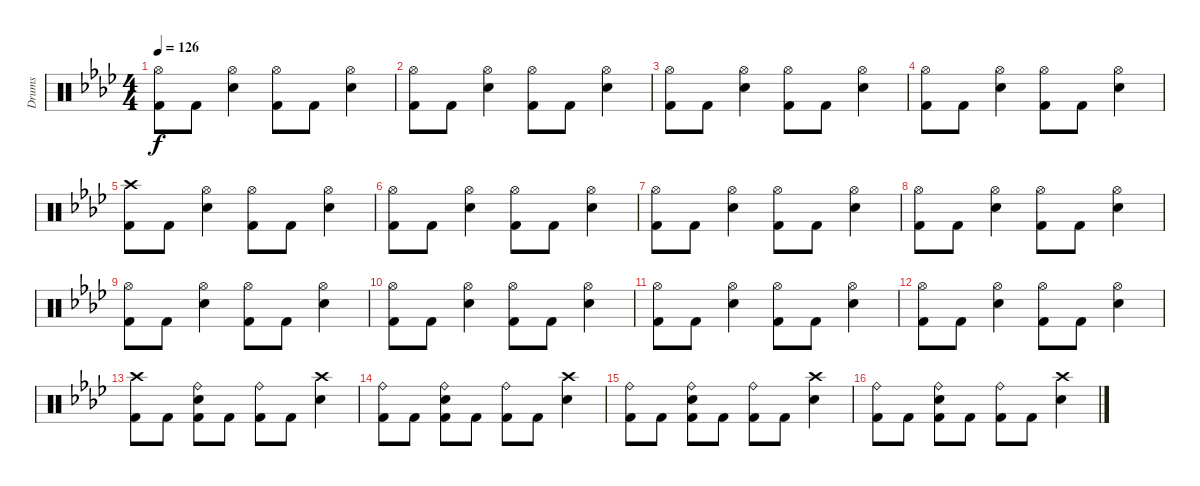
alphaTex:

\track ("Drums" "Drums") {instrument percussion}
\staff {score}
\articulation defaults
\ts (4 4)
\tempo 126
\clef neutral
\ks fminor
("Hi-Hat (open)" "Kick (hit) 2").8{dy f} "Kick (hit) 2".8 ("Hi-Hat (open)" "Electric Snare (hit)").4 ("Hi-Hat (open)" "Kick (hit) 2").8 "Kick (hit) 2".8 ("Hi-Hat (open)" "Electric Snare (hit)").4 |
("Hi-Hat (open)" "Kick (hit) 2").8 "Kick (hit) 2".8 ("Hi-Hat (open)" "Electric Snare (hit)").4 ("Hi-Hat (open)" "Kick (hit) 2").8 "Kick (hit) 2".8 ("Hi-Hat (open)" "Electric Snare (hit)").4 |
("Hi-Hat (open)" "Kick (hit) 2").8 "Kick (hit) 2".8 ("Hi-Hat (open)" "Electric Snare (hit)").4 ("Hi-Hat (open)" "Kick (hit) 2").8 "Kick (hit) 2".8 ("Hi-Hat (open)" "Electric Snare (hit)").4 |
("Hi-Hat (open)" "Kick (hit) 2").8 "Kick (hit) 2".8 ("Hi-Hat (open)" "Electric Snare (hit)").4 ("Hi-Hat (open)" "Kick (hit) 2").8 "Kick (hit) 2".8 ("Hi-Hat (open)" "Electric Snare (hit)").4 |
("Crash high (hit)" "Kick (hit) 2").8 "Kick (hit) 2".8 ("Hi-Hat (open)" "Electric Snare (hit)").4 ("Hi-Hat (open)" "Kick (hit) 2").8 "Kick (hit) 2".8 ("Hi-Hat (open)" "Electric Snare (hit)").4 |
("Hi-Hat (open)" "Kick (hit) 2").8 "Kick (hit) 2".8 ("Hi-Hat (open)" "Electric Snare (hit)").4 ("Hi-Hat (open)" "Kick (hit) 2").8 "Kick (hit) 2".8 ("Hi-Hat (open)" "Electric Snare (hit)").4 |
("Hi-Hat (open)" "Kick (hit) 2").8 "Kick (hit) 2".8 ("Hi-Hat (open)" "Electric Snare (hit)").4 ("Hi-Hat (open)" "Kick (hit) 2").8 "Kick (hit) 2".8 ("Hi-Hat (open)" "Electric Snare (hit)").4 |
("Hi-Hat (open)" "Kick (hit) 2").8 "Kick (hit) 2".8 ("Hi-Hat (open)" "Electric Snare (hit)").4 ("Hi-Hat (open)" "Kick (hit) 2").8 "Kick (hit) 2".8 ("Hi-Hat (open)" "Electric Snare (hit)").4 |
("Hi-Hat (open)" "Kick (hit) 2").8 "Kick (hit) 2".8 ("Hi-Hat (open)" "Electric Snare (hit)").4 ("Hi-Hat (open)" "Kick (hit) 2").8 "Kick (hit) 2".8 ("Hi-Hat (open)" "Electric Snare (hit)").4 |
("Hi-Hat (open)" "Kick (hit) 2").8 "Kick (hit) 2".8 ("Hi-Hat (open)" "Electric Snare (hit)").4 ("Hi-Hat (open)" "Kick (hit) 2").8 "Kick (hit) 2".8 ("Hi-Hat (open)" "Electric Snare (hit)").4 |
("Hi-Hat (open)" "Kick (hit) 2").8 "Kick (hit) 2".8 ("Hi-Hat (open)" "Electric Snare (hit)").4 ("Hi-Hat (open)" "Kick (hit) 2").8 "Kick (hit) 2".8 ("Hi-Hat (open)" "Electric Snare (hit)").4 |
("Hi-Hat (open)" "Kick (hit) 2").8 "Kick (hit) 2".8 ("Hi-Hat (open)" "Electric Snare (hit)").4 ("Hi-Hat (open)" "Kick (hit) 2").8 "Kick (hit) 2".8 ("Hi-Hat (open)" "Electric Snare (hit)").4 |
("Crash high (hit)" "Kick (hit) 2").8 "Kick (hit) 2".8 ("Ride (bell)" "Electric Snare (hit)" "Kick (hit) 2").8 "Kick (hit) 2".8 ("Ride (bell)" "Kick (hit) 2").8 "Kick (hit) 2".8 ("Crash high (hit)" "Electric Snare (hit)").4 |
("Ride (bell)" "Kick (hit) 2").8 "Kick (hit) 2".8 ("Ride (bell)" "Electric Snare (hit)" "Kick (hit) 2").8 "Kick (hit) 2".8 ("Ride (bell)" "Kick (hit) 2").8 "Kick (hit) 2".8 ("Crash high (hit)" "Electric Snare (hit)").4 |
("Ride (bell)" "Kick (hit) 2").8 "Kick (hit) 2".8 ("Ride (bell)" "Electric Snare (hit)" "Kick (hit) 2").8 "Kick (hit) 2".8 ("Ride (bell)" "Kick (hit) 2").8 "Kick (hit) 2".8 ("Crash high (hit)" "Electric Snare (hit)").4 |
("Ride (bell)" "Kick (hit) 2").8 "Kick (hit) 2".8 ("Ride (bell)" "Electric Snare (hit)" "Kick (hit) 2").8 "Kick (hit) 2".8 ("Ride (bell)" "Kick (hit) 2").8 "Kick (hit) 2".8 ("Crash high (hit)" "Electric Snare (hit)").4
